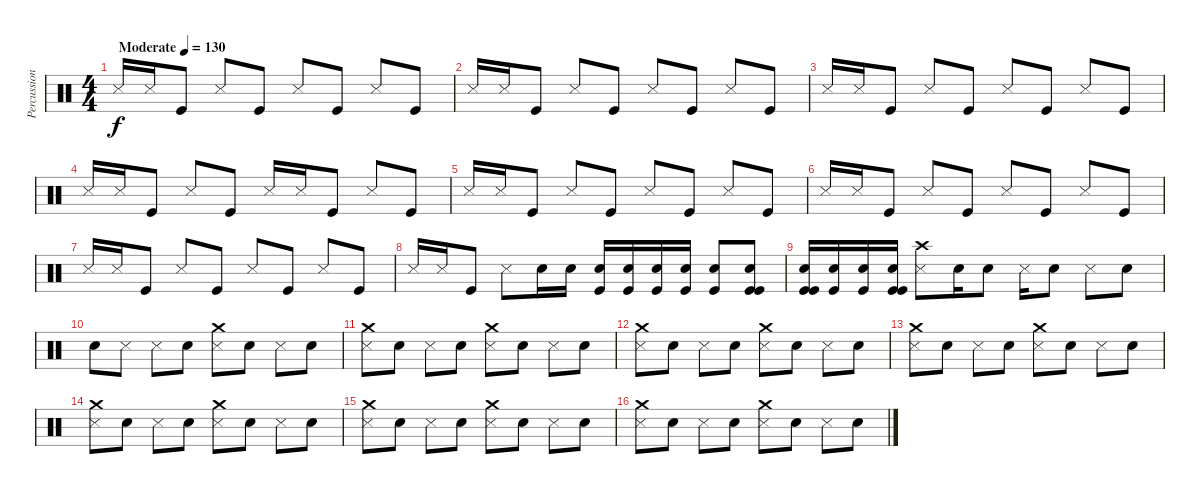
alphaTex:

\track ("Percussion" "Percussion") {instrument percussion}
\staff {score}
\articulation defaults
\ts (4 4)
\tempo (130 "Moderate")
\clef neutral
\ks c "Metronome (hit)".16{dy f} "Snare (side stick) 3".16 "Kick (hit)".8 "Metronome (hit)".8 "Kick (hit)".8 "Metronome (hit)".8 "Kick (hit)".8 "Metronome (hit)".8 "Kick (hit)".8
|
"Metronome (hit)".16 "Snare (side stick) 3".16 "Kick (hit)".8 "Metronome (hit)".8 "Kick (hit)".8 "Metronome (hit)".8 "Kick (hit)".8 "Metronome (hit)".8 "Kick (hit)".8 |
"Metronome (hit)".16 "Snare (side stick) 3".16 "Kick (hit)".8 "Metronome (hit)".8 "Kick (hit)".8 "Metronome (hit)".8 "Kick (hit)".8 "Metronome (hit)".8 "Kick (hit)".8 |
"Metronome (hit)".16 "Snare (side stick) 3".16 "Kick (hit)".8 "Metronome (hit)".8 "Kick (hit)".8 "Metronome (hit)".16 "Snare (side stick) 3".16 "Kick (hit)".8 "Metronome (hit)".8 "Kick (hit)".8 |
"Metronome (hit)".16 "Snare (side stick) 3".16 "Kick (hit)".8 "Metronome (hit)".8 "Kick (hit)".8 "Metronome (hit)".8 "Kick (hit)".8 "Metronome (hit)".8 "Kick (hit)".8 |
"Metronome (hit)".16 "Snare (side stick) 3".16 "Kick (hit)".8 "Metronome (hit)".8 "Kick (hit)".8 "Metronome (hit)".8 "Kick (hit)".8 "Metronome (hit)".8 "Kick (hit)".8 |
"Metronome (hit)".16 "Snare (side stick) 3".16 "Kick (hit)".8 "Metronome (hit)".8 "Kick (hit)".8 "Metronome (hit)".8 "Kick (hit)".8 "Metronome (hit)".8 "Kick (hit)".8 |
"Metronome (hit)".16 "Snare (side stick) 3".16 "Kick (hit)".8 "Metronome (hit)".8 "Snare (hit) 2".16 "Snare (hit) 2".16 ("Kick (hit)" "Snare (hit) 2").16 ("Kick (hit)" "Snare (hit) 2").16 ("Kick (hit)" "Snare (hit) 2").16 ("Kick (hit)" "Snare (hit) 2").16 ("Kick (hit)" "Snare (hit) 2").8 ("Kick (hit)" "Kick (hit)" "Snare (hit) 2").8 |
("Kick (hit)" "Kick (hit)" "Snare (hit) 2").16 ("Kick (hit)" "Snare (hit) 2").16 ("Kick (hit)" "Snare (hit) 2").16 ("Kick (hit)" "Kick (hit)" "Snare (hit) 2").16 ("Crash high (hit)" "Metronome (hit)").8 "Electric Snare (hit)".16 "Electric Snare (hit)".8 "Metronome (hit)".16 "Electric Snare (hit)".8 "Metronome (hit)".8 "Electric Snare (hit)".8 |
"Electric Snare (hit)".8 "Metronome (hit)".8 "Metronome (hit)".8 "Electric Snare (hit)".8 ("Crash medium (hit)" "Metronome (hit)").8 "Electric Snare (hit)".8 "Metronome (hit)".8 "Electric Snare (hit)".8 |
("Crash medium (hit)" "Metronome (hit)").8 "Electric Snare (hit)".8 "Metronome (hit)".8 "Electric Snare (hit)".8 ("Crash medium (hit)" "Metronome (hit)").8 "Electric Snare (hit)".8 "Metronome (hit)".8 "Electric Snare (hit)".8 |
("Crash medium (hit)" "Metronome (hit)").8 "Electric Snare (hit)".8 "Metronome (hit)".8 "Electric Snare (hit)".8 ("Crash medium (hit)" "Metronome (hit)").8 "Electric Snare (hit)".8 "Metronome (hit)".8 "Electric Snare (hit)".8 |
("Crash medium (hit)" "Metronome (hit)").8 "Electric Snare (hit)".8 "Metronome (hit)".8 "Electric Snare (hit)".8 ("Crash medium (hit)" "Metronome (hit)").8 "Electric Snare (hit)".8 "Metronome (hit)".8 "Electric Snare (hit)".8 |
("Crash medium (hit)" "Metronome (hit)").8 "Electric Snare (hit)".8 "Metronome (hit)".8 "Electric Snare (hit)".8 ("Crash medium (hit)" "Metronome (hit)").8 "Electric Snare (hit)".8 "Metronome (hit)".8 "Electric Snare (hit)".8 |
("Crash medium (hit)" "Metronome (hit)").8 "Electric Snare (hit)".8 "Metronome (hit)".8 "Electric Snare (hit)".8 ("Crash medium (hit)" "Metronome (hit)").8 "Electric Snare (hit)".8 "Metronome (hit)".8 "Electric Snare (hit)".8 |
("Crash medium (hit)" "Metronome (hit)").8 "Electric Snare (hit)".8 "Metronome (hit)".8 "Electric Snare (hit)".8 ("Crash medium (hit)" "Metronome (hit)").8 "Electric Snare (hit)".8 "Metronome (hit)".8 "Electric Snare (hit)".8
